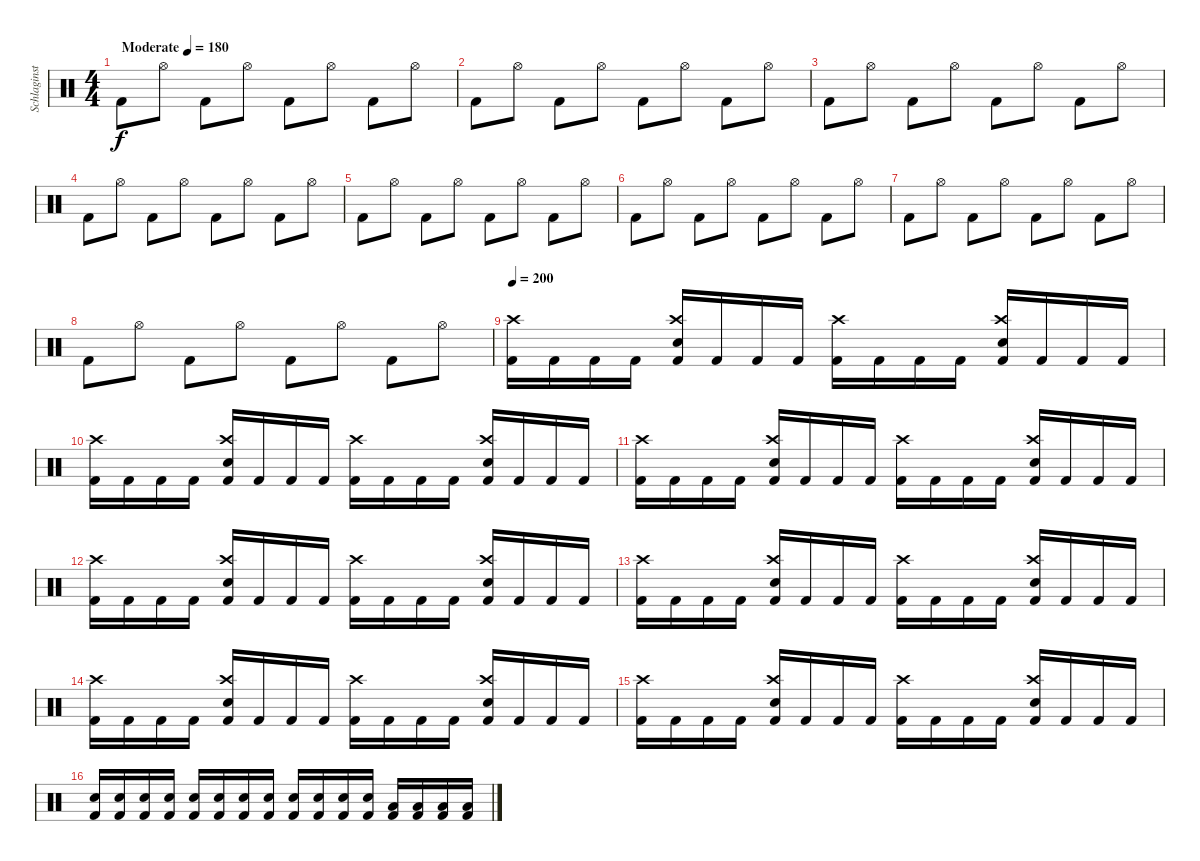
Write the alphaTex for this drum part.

\track ("Schlaginstrumente - Auswahl" "Schlaginst") {instrument percussion}
\staff {score}
\articulation defaults
\ts (4 4)
\tempo (180 "Moderate")
\clef neutral
\ks c "Kick (hit) 2".8{dy f} "Hi-Hat (open)".8 "Kick (hit) 2".8 "Hi-Hat (open)".8 "Kick (hit) 2".8 "Hi-Hat (open)".8 "Kick (hit) 2".8 "Hi-Hat (open)".8
|
"Kick (hit) 2".8 "Hi-Hat (open)".8 "Kick (hit) 2".8 "Hi-Hat (open)".8 "Kick (hit) 2".8 "Hi-Hat (open)".8 "Kick (hit) 2".8 "Hi-Hat (open)".8 |
"Kick (hit) 2".8 "Hi-Hat (open)".8 "Kick (hit) 2".8 "Hi-Hat (open)".8 "Kick (hit) 2".8 "Hi-Hat (open)".8 "Kick (hit) 2".8 "Hi-Hat (open)".8 |
"Kick (hit) 2".8 "Hi-Hat (open)".8 "Kick (hit) 2".8 "Hi-Hat (open)".8 "Kick (hit) 2".8 "Hi-Hat (open)".8 "Kick (hit) 2".8 "Hi-Hat (open)".8 |
"Kick (hit) 2".8 "Hi-Hat (open)".8 "Kick (hit) 2".8 "Hi-Hat (open)".8 "Kick (hit) 2".8 "Hi-Hat (open)".8 "Kick (hit) 2".8 "Hi-Hat (open)".8 |
"Kick (hit) 2".8 "Hi-Hat (open)".8 "Kick (hit) 2".8 "Hi-Hat (open)".8 "Kick (hit) 2".8 "Hi-Hat (open)".8 "Kick (hit) 2".8 "Hi-Hat (open)".8 |
"Kick (hit) 2".8 "Hi-Hat (open)".8 "Kick (hit) 2".8 "Hi-Hat (open)".8 "Kick (hit) 2".8 "Hi-Hat (open)".8 "Kick (hit) 2".8 "Hi-Hat (open)".8 |
"Kick (hit) 2".8 "Hi-Hat (open)".8 "Kick (hit) 2".8 "Hi-Hat (open)".8 "Kick (hit) 2".8 "Hi-Hat (open)".8 "Kick (hit) 2".8 "Hi-Hat (open)".8 |
\tempo 200
("Crash high (hit)" "Kick (hit) 2").16 "Kick (hit) 2".16 "Kick (hit) 2".16 "Kick (hit) 2".16 ("Crash high (hit)" "Snare (hit) 2" "Kick (hit) 2").16 "Kick (hit) 2".16 "Kick (hit) 2".16 "Kick (hit) 2".16 ("Crash high (hit)" "Kick (hit) 2").16 "Kick (hit) 2".16 "Kick (hit) 2".16 "Kick (hit) 2".16 ("Crash high (hit)" "Snare (hit) 2" "Kick (hit) 2").16 "Kick (hit) 2".16 "Kick (hit) 2".16 "Kick (hit) 2".16 |
("Crash high (hit)" "Kick (hit) 2").16 "Kick (hit) 2".16 "Kick (hit) 2".16 "Kick (hit) 2".16 ("Crash high (hit)" "Snare (hit) 2" "Kick (hit) 2").16 "Kick (hit) 2".16 "Kick (hit) 2".16 "Kick (hit) 2".16 ("Crash high (hit)" "Kick (hit) 2").16 "Kick (hit) 2".16 "Kick (hit) 2".16 "Kick (hit) 2".16 ("Crash high (hit)" "Snare (hit) 2" "Kick (hit) 2").16 "Kick (hit) 2".16 "Kick (hit) 2".16 "Kick (hit) 2".16 |
("Crash high (hit)" "Kick (hit) 2").16 "Kick (hit) 2".16 "Kick (hit) 2".16 "Kick (hit) 2".16 ("Crash high (hit)" "Snare (hit) 2" "Kick (hit) 2").16 "Kick (hit) 2".16 "Kick (hit) 2".16 "Kick (hit) 2".16 ("Crash high (hit)" "Kick (hit) 2").16 "Kick (hit) 2".16 "Kick (hit) 2".16 "Kick (hit) 2".16 ("Crash high (hit)" "Snare (hit) 2" "Kick (hit) 2").16 "Kick (hit) 2".16 "Kick (hit) 2".16 "Kick (hit) 2".16 |
("Crash high (hit)" "Kick (hit) 2").16 "Kick (hit) 2".16 "Kick (hit) 2".16 "Kick (hit) 2".16 ("Crash high (hit)" "Snare (hit) 2" "Kick (hit) 2").16 "Kick (hit) 2".16 "Kick (hit) 2".16 "Kick (hit) 2".16 ("Crash high (hit)" "Kick (hit) 2").16 "Kick (hit) 2".16 "Kick (hit) 2".16 "Kick (hit) 2".16 ("Crash high (hit)" "Snare (hit) 2" "Kick (hit) 2").16 "Kick (hit) 2".16 "Kick (hit) 2".16 "Kick (hit) 2".16 |
("Crash high (hit)" "Kick (hit) 2").16 "Kick (hit) 2".16 "Kick (hit) 2".16 "Kick (hit) 2".16 ("Crash high (hit)" "Snare (hit) 2" "Kick (hit) 2").16 "Kick (hit) 2".16 "Kick (hit) 2".16 "Kick (hit) 2".16 ("Crash high (hit)" "Kick (hit) 2").16 "Kick (hit) 2".16 "Kick (hit) 2".16 "Kick (hit) 2".16 ("Crash high (hit)" "Snare (hit) 2" "Kick (hit) 2").16 "Kick (hit) 2".16 "Kick (hit) 2".16 "Kick (hit) 2".16 |
("Crash high (hit)" "Kick (hit) 2").16 "Kick (hit) 2".16 "Kick (hit) 2".16 "Kick (hit) 2".16 ("Crash high (hit)" "Snare (hit) 2" "Kick (hit) 2").16 "Kick (hit) 2".16 "Kick (hit) 2".16 "Kick (hit) 2".16 ("Crash high (hit)" "Kick (hit) 2").16 "Kick (hit) 2".16 "Kick (hit) 2".16 "Kick (hit) 2".16 ("Crash high (hit)" "Snare (hit) 2" "Kick (hit) 2").16 "Kick (hit) 2".16 "Kick (hit) 2".16 "Kick (hit) 2".16 |
("Crash high (hit)" "Kick (hit) 2").16 "Kick (hit) 2".16 "Kick (hit) 2".16 "Kick (hit) 2".16 ("Crash high (hit)" "Snare (hit) 2" "Kick (hit) 2").16 "Kick (hit) 2".16 "Kick (hit) 2".16 "Kick (hit) 2".16 ("Crash high (hit)" "Kick (hit) 2").16 "Kick (hit) 2".16 "Kick (hit) 2".16 "Kick (hit) 2".16 ("Crash high (hit)" "Snare (hit) 2" "Kick (hit) 2").16 "Kick (hit) 2".16 "Kick (hit) 2".16 "Kick (hit) 2".16 |
("Snare (hit) 2" "Kick (hit) 2").16 ("Snare (hit) 2" "Kick (hit) 2").16 ("Snare (hit) 2" "Kick (hit) 2").16 ("Snare (hit) 2" "Kick (hit) 2").16 ("Snare (hit) 2" "Kick (hit) 2").16 ("Snare (hit) 2" "Kick (hit) 2").16 ("Snare (hit) 2" "Kick (hit) 2").16 ("Snare (hit) 2" "Kick (hit) 2").16 ("Snare (hit) 2" "Kick (hit) 2").16 ("Snare (hit) 2" "Kick (hit) 2").16 ("Snare (hit) 2" "Kick (hit) 2").16 ("Snare (hit) 2" "Kick (hit) 2").16 ("Low Tom (hit)" "Kick (hit) 2").16 ("Low Tom (hit)" "Kick (hit) 2").16 ("Low Tom (hit)" "Kick (hit) 2").16 ("Low Tom (hit)" "Kick (hit) 2").16
